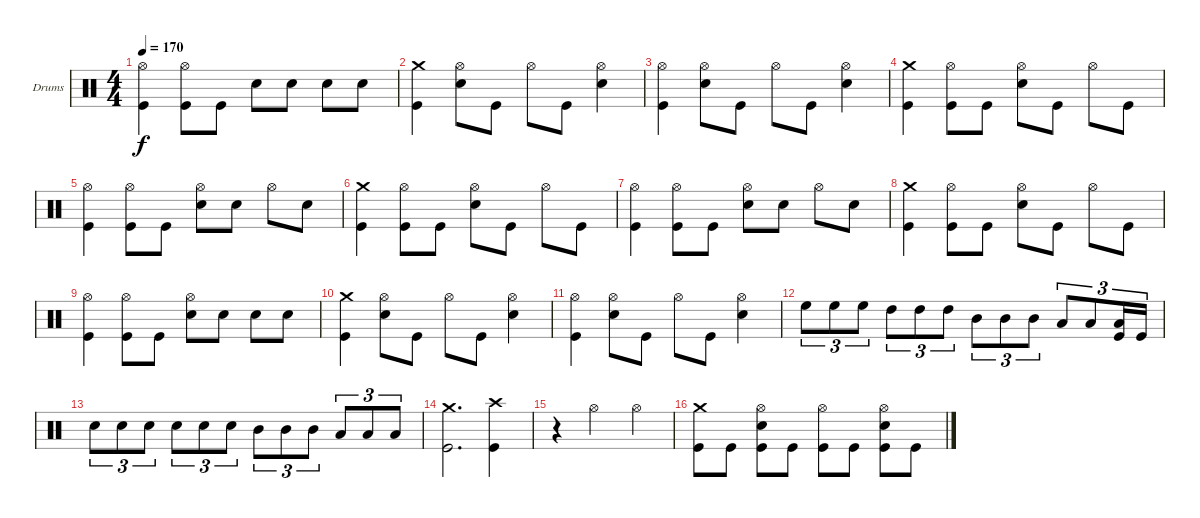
\bracketExtendMode groupsimilarinstruments
\firstSystemTrackNameOrientation horizontal
\otherSystemsTrackNameOrientation horizontal
\track ("Дмитрий Кривенков" "Drums") {instrument percussion}
\staff {score}
\articulation defaults
\ts (4 4)
\tempo 170
\clef neutral
\ks c
("Hi-Hat (open)" "Kick (hit)").4{dy f} ("Hi-Hat (open)" "Kick (hit)").8 "Kick (hit)".8 "Snare (hit) 2".8 "Snare (hit) 2".8 "Snare (hit) 2".8 "Snare (hit) 2".8 |
("Crash medium (hit)" "Kick (hit)").4 ("Hi-Hat (open)" "Snare (hit) 2").8 "Kick (hit)".8 "Hi-Hat (open)".8 "Kick (hit)".8 ("Hi-Hat (open)" "Snare (hit) 2").4 |
("Hi-Hat (open)" "Kick (hit)").4 ("Hi-Hat (open)" "Snare (hit) 2").8 "Kick (hit)".8 "Hi-Hat (open)".8 "Kick (hit)".8 ("Hi-Hat (open)" "Snare (hit) 2").4 |
("Crash medium (hit)" "Kick (hit)").4 ("Hi-Hat (open)" "Kick (hit)").8 "Kick (hit)".8 ("Hi-Hat (open)" "Snare (hit) 2").8 "Kick (hit)".8 "Hi-Hat (open)".8 "Kick (hit)".8 |
("Hi-Hat (open)" "Kick (hit)").4 ("Hi-Hat (open)" "Kick (hit)").8 "Kick (hit)".8 ("Hi-Hat (open)" "Snare (hit) 2").8 "Snare (hit) 2".8 "Hi-Hat (open)".8 "Snare (hit) 2".8 |
("Crash medium (hit)" "Kick (hit)").4 ("Hi-Hat (open)" "Kick (hit)").8 "Kick (hit)".8 ("Hi-Hat (open)" "Snare (hit) 2").8 "Kick (hit)".8 "Hi-Hat (open)".8 "Kick (hit)".8 |
("Hi-Hat (open)" "Kick (hit)").4 ("Hi-Hat (open)" "Kick (hit)").8 "Kick (hit)".8 ("Hi-Hat (open)" "Snare (hit) 2").8 "Snare (hit) 2".8 "Hi-Hat (open)".8 "Snare (hit) 2".8 |
("Crash medium (hit)" "Kick (hit)").4 ("Hi-Hat (open)" "Kick (hit)").8 "Kick (hit)".8 ("Hi-Hat (open)" "Snare (hit) 2").8 "Kick (hit)".8 "Hi-Hat (open)".8 "Kick (hit)".8 |
("Hi-Hat (open)" "Kick (hit)").4 ("Hi-Hat (open)" "Kick (hit)").8 "Kick (hit)".8 ("Hi-Hat (open)" "Snare (hit) 2").8 "Snare (hit) 2".8 "Snare (hit) 2".8 "Snare (hit) 2".8 |
("Crash medium (hit)" "Kick (hit)").4 ("Hi-Hat (open)" "Snare (hit) 2").8 "Kick (hit)".8 "Hi-Hat (open)".8 "Kick (hit)".8 ("Hi-Hat (open)" "Snare (hit) 2").4 |
("Hi-Hat (open)" "Kick (hit)").4 ("Hi-Hat (open)" "Snare (hit) 2").8 "Kick (hit)".8 "Hi-Hat (open)".8 "Kick (hit)".8 ("Hi-Hat (open)" "Snare (hit) 2").4 |
"High Floor Tom (hit)".8{tu (3 2)} "High Floor Tom (hit)".8{tu (3 2)} "High Floor Tom (hit)".8{tu (3 2)} "High Tom (hit)".8{tu (3 2)} "High Tom (hit)".8{tu (3 2)} "High Tom (hit)".8{tu (3 2)} "Mid Tom (hit)".8{tu (3 2)} "Mid Tom (hit)".8{tu (3 2)} "Mid Tom (hit)".8{tu (3 2)} "Low Tom (hit)".8{tu (3 2)} "Low Tom (hit)".8{tu (3 2)} ("Low Tom (hit)" "Kick (hit)").16{tu (3 2)} "Kick (hit)".16{tu (3 2)} |
"Snare (hit) 2".8{tu (3 2)} "Snare (hit) 2".8{tu (3 2)} "Snare (hit) 2".8{tu (3 2)} "Snare (hit) 2".8{tu (3 2)} "Snare (hit) 2".8{tu (3 2)} "Snare (hit) 2".8{tu (3 2)} "Mid Tom (hit)".8{tu (3 2)} "Mid Tom (hit)".8{tu (3 2)} "Mid Tom (hit)".8{tu (3 2)} "Low Tom (hit)".8{tu (3 2)} "Low Tom (hit)".8{tu (3 2)} "Low Tom (hit)".8{tu (3 2)} |
("Crash medium (hit)" "Kick (hit)").2{d} ("Crash high (hit)" "Kick (hit)").4 |
r.4 "Hi-Hat (open)".2 "Hi-Hat (open)".4 |
("Crash medium (hit)" "Kick (hit)").8 "Kick (hit)".8 ("Hi-Hat (open)" "Snare (hit) 2" "Kick (hit)").8 "Kick (hit)".8 ("Hi-Hat (open)" "Kick (hit)").8 "Kick (hit)".8 ("Hi-Hat (open)" "Snare (hit) 2" "Kick (hit)").8 "Kick (hit)".8
